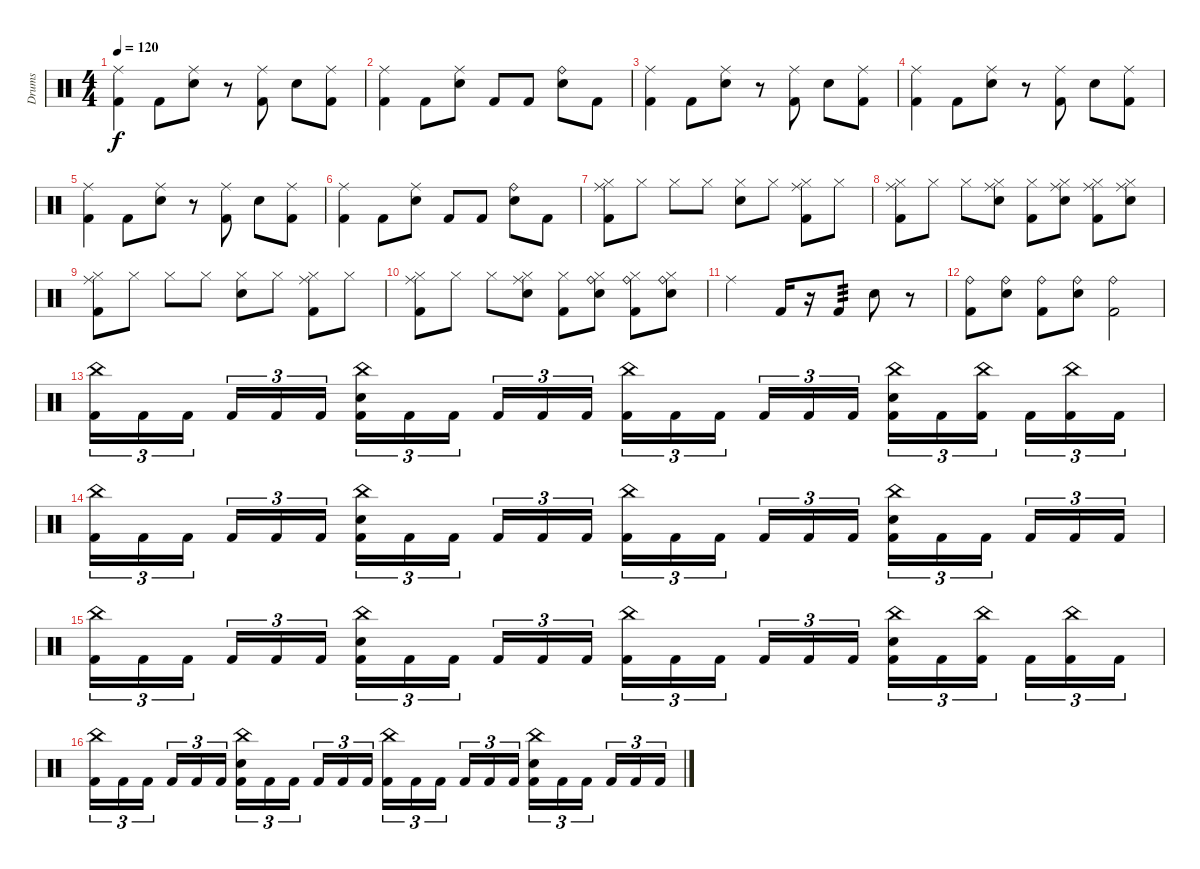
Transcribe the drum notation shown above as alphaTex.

\track ("Drums" "Drums") {instrument percussion}
\staff {score}
\articulation defaults
\ts (4 4)
\tempo 120
\clef neutral
\ks c
("Ride (middle)" "Kick (hit) 2").4{dy f} "Kick (hit) 2".8 ("Ride (middle)" "Electric Snare (hit)").8 r.8 ("Ride (middle)" "Kick (hit) 2").8 "Electric Snare (hit)".8 ("Ride (middle)" "Kick (hit) 2").8 |
("Ride (middle)" "Kick (hit) 2").4 "Kick (hit) 2".8 ("Ride (middle)" "Electric Snare (hit)").8 "Kick (hit) 2".8 "Kick (hit) 2".8 ("Ride (bell)" "Electric Snare (hit)").8 "Kick (hit) 2".8 |
("Ride (middle)" "Kick (hit) 2").4 "Kick (hit) 2".8 ("Ride (middle)" "Electric Snare (hit)").8 r.8 ("Ride (middle)" "Kick (hit) 2").8 "Electric Snare (hit)".8 ("Ride (middle)" "Kick (hit) 2").8 |
("Ride (middle)" "Kick (hit) 2").4 "Kick (hit) 2".8 ("Ride (middle)" "Electric Snare (hit)").8 r.8 ("Ride (middle)" "Kick (hit) 2").8 "Electric Snare (hit)".8 ("Ride (middle)" "Kick (hit) 2").8 |
("Ride (middle)" "Kick (hit) 2").4 "Kick (hit) 2".8 ("Ride (middle)" "Electric Snare (hit)").8 r.8 ("Ride (middle)" "Kick (hit) 2").8 "Electric Snare (hit)".8 ("Ride (middle)" "Kick (hit) 2").8 |
("Ride (middle)" "Kick (hit) 2").4 "Kick (hit) 2".8 ("Ride (middle)" "Electric Snare (hit)").8 "Kick (hit) 2".8 "Kick (hit) 2".8 ("Ride (bell)" "Electric Snare (hit)").8 "Kick (hit) 2".8 |
("Ride (middle)" "Hi-Hat (closed)" "Kick (hit) 2").8 "Hi-Hat (closed)".8 "Hi-Hat (closed)".8 "Hi-Hat (closed)".8 ("Hi-Hat (closed)" "Electric Snare (hit)").8 "Hi-Hat (closed)".8 ("Ride (middle)" "Hi-Hat (closed)" "Kick (hit) 2").8 "Hi-Hat (closed)".8 |
("Ride (middle)" "Hi-Hat (closed)" "Kick (hit) 2").8 "Hi-Hat (closed)".8 "Hi-Hat (closed)".8 ("Ride (middle)" "Hi-Hat (closed)" "Electric Snare (hit)").8 ("Hi-Hat (closed)" "Kick (hit) 2").8 ("Ride (middle)" "Hi-Hat (closed)" "Electric Snare (hit)").8 ("Ride (middle)" "Hi-Hat (closed)" "Kick (hit) 2").8 ("Ride (middle)" "Hi-Hat (closed)" "Electric Snare (hit)").8 |
("Ride (middle)" "Hi-Hat (closed)" "Kick (hit) 2").8 "Hi-Hat (closed)".8 "Hi-Hat (closed)".8 "Hi-Hat (closed)".8 ("Hi-Hat (closed)" "Electric Snare (hit)").8 "Hi-Hat (closed)".8 ("Ride (middle)" "Hi-Hat (closed)" "Kick (hit) 2").8 "Hi-Hat (closed)".8 |
("Ride (middle)" "Hi-Hat (closed)" "Kick (hit) 2").8 "Hi-Hat (closed)".8 "Hi-Hat (closed)".8 ("Ride (middle)" "Hi-Hat (closed)" "Electric Snare (hit)").8 ("Hi-Hat (closed)" "Kick (hit) 2").8 ("Ride (bell)" "Hi-Hat (closed)" "Electric Snare (hit)").8 ("Ride (bell)" "Hi-Hat (closed)" "Kick (hit) 2").8 ("Ride (bell)" "Hi-Hat (closed)" "Electric Snare (hit)").8 |
"Ride (middle)".2 "Kick (hit) 2".16 r.16 "Kick (hit) 2".8{tp 3} "Electric Snare (hit)".8 r.8 |
("Ride (bell)" "Kick (hit) 2").8 ("Ride (bell)" "Electric Snare (hit)").8 ("Ride (bell)" "Kick (hit) 2").8 ("Ride (bell)" "Electric Snare (hit)").8 ("Ride (bell)" "Kick (hit) 2").2 |
("China (hit)" "Kick (hit) 2").16{tu (3 2)} "Kick (hit) 2".16{tu (3 2)} "Kick (hit) 2".16{tu (3 2)} "Kick (hit) 2".16{tu (3 2)} "Kick (hit) 2".16{tu (3 2)} "Kick (hit) 2".16{tu (3 2)} ("China (hit)" "Electric Snare (hit)" "Kick (hit) 2").16{tu (3 2)} "Kick (hit) 2".16{tu (3 2)} "Kick (hit) 2".16{tu (3 2)} "Kick (hit) 2".16{tu (3 2)} "Kick (hit) 2".16{tu (3 2)} "Kick (hit) 2".16{tu (3 2)} ("China (hit)" "Kick (hit) 2").16{tu (3 2)} "Kick (hit) 2".16{tu (3 2)} "Kick (hit) 2".16{tu (3 2)} "Kick (hit) 2".16{tu (3 2)} "Kick (hit) 2".16{tu (3 2)} "Kick (hit) 2".16{tu (3 2)} ("China (hit)" "Electric Snare (hit)" "Kick (hit) 2").16{tu (3 2)} "Kick (hit) 2".16{tu (3 2)} ("China (hit)" "Kick (hit) 2").16{tu (3 2)} "Kick (hit) 2".16{tu (3 2)} ("China (hit)" "Kick (hit) 2").16{tu (3 2)} "Kick (hit) 2".16{tu (3 2)} |
("China (hit)" "Kick (hit) 2").16{tu (3 2)} "Kick (hit) 2".16{tu (3 2)} "Kick (hit) 2".16{tu (3 2)} "Kick (hit) 2".16{tu (3 2)} "Kick (hit) 2".16{tu (3 2)} "Kick (hit) 2".16{tu (3 2)} ("China (hit)" "Electric Snare (hit)" "Kick (hit) 2").16{tu (3 2)} "Kick (hit) 2".16{tu (3 2)} "Kick (hit) 2".16{tu (3 2)} "Kick (hit) 2".16{tu (3 2)} "Kick (hit) 2".16{tu (3 2)} "Kick (hit) 2".16{tu (3 2)} ("China (hit)" "Kick (hit) 2").16{tu (3 2)} "Kick (hit) 2".16{tu (3 2)} "Kick (hit) 2".16{tu (3 2)} "Kick (hit) 2".16{tu (3 2)} "Kick (hit) 2".16{tu (3 2)} "Kick (hit) 2".16{tu (3 2)} ("China (hit)" "Electric Snare (hit)" "Kick (hit) 2").16{tu (3 2)} "Kick (hit) 2".16{tu (3 2)} "Kick (hit) 2".16{tu (3 2)} "Kick (hit) 2".16{tu (3 2)} "Kick (hit) 2".16{tu (3 2)} "Kick (hit) 2".16{tu (3 2)} |
("China (hit)" "Kick (hit) 2").16{tu (3 2)} "Kick (hit) 2".16{tu (3 2)} "Kick (hit) 2".16{tu (3 2)} "Kick (hit) 2".16{tu (3 2)} "Kick (hit) 2".16{tu (3 2)} "Kick (hit) 2".16{tu (3 2)} ("China (hit)" "Electric Snare (hit)" "Kick (hit) 2").16{tu (3 2)} "Kick (hit) 2".16{tu (3 2)} "Kick (hit) 2".16{tu (3 2)} "Kick (hit) 2".16{tu (3 2)} "Kick (hit) 2".16{tu (3 2)} "Kick (hit) 2".16{tu (3 2)} ("China (hit)" "Kick (hit) 2").16{tu (3 2)} "Kick (hit) 2".16{tu (3 2)} "Kick (hit) 2".16{tu (3 2)} "Kick (hit) 2".16{tu (3 2)} "Kick (hit) 2".16{tu (3 2)} "Kick (hit) 2".16{tu (3 2)} ("China (hit)" "Electric Snare (hit)" "Kick (hit) 2").16{tu (3 2)} "Kick (hit) 2".16{tu (3 2)} ("China (hit)" "Kick (hit) 2").16{tu (3 2)} "Kick (hit) 2".16{tu (3 2)} ("China (hit)" "Kick (hit) 2").16{tu (3 2)} "Kick (hit) 2".16{tu (3 2)} |
("China (hit)" "Kick (hit) 2").16{tu (3 2)} "Kick (hit) 2".16{tu (3 2)} "Kick (hit) 2".16{tu (3 2)} "Kick (hit) 2".16{tu (3 2)} "Kick (hit) 2".16{tu (3 2)} "Kick (hit) 2".16{tu (3 2)} ("China (hit)" "Electric Snare (hit)" "Kick (hit) 2").16{tu (3 2)} "Kick (hit) 2".16{tu (3 2)} "Kick (hit) 2".16{tu (3 2)} "Kick (hit) 2".16{tu (3 2)} "Kick (hit) 2".16{tu (3 2)} "Kick (hit) 2".16{tu (3 2)} ("China (hit)" "Kick (hit) 2").16{tu (3 2)} "Kick (hit) 2".16{tu (3 2)} "Kick (hit) 2".16{tu (3 2)} "Kick (hit) 2".16{tu (3 2)} "Kick (hit) 2".16{tu (3 2)} "Kick (hit) 2".16{tu (3 2)} ("China (hit)" "Electric Snare (hit)" "Kick (hit) 2").16{tu (3 2)} "Kick (hit) 2".16{tu (3 2)} "Kick (hit) 2".16{tu (3 2)} "Kick (hit) 2".16{tu (3 2)} "Kick (hit) 2".16{tu (3 2)} "Kick (hit) 2".16{tu (3 2)}
